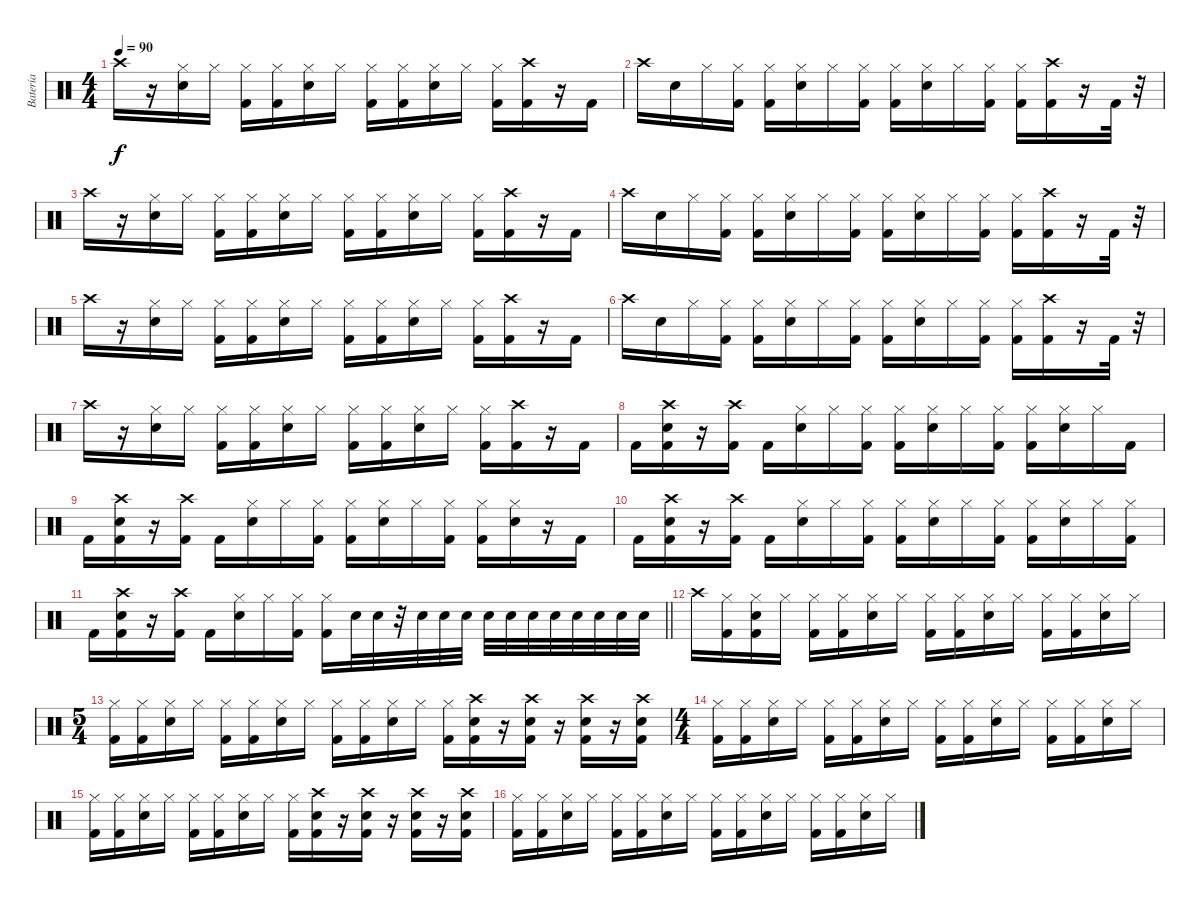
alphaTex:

\track ("Batería   (Jony)" "Batería   ") {instrument percussion}
\staff {score}
\articulation defaults
\ts (4 4)
\tempo 90
\clef neutral
\ks c "Crash high (hit)".16{dy f}
r.16 ("Hi-Hat (closed)" "Electric Snare (hit)").16 "Hi-Hat (closed)".16 ("Hi-Hat (closed)" "Kick (hit) 2").16 ("Hi-Hat (closed)" "Kick (hit) 2").16 ("Hi-Hat (closed)" "Electric Snare (hit)").16 "Hi-Hat (closed)".16 ("Hi-Hat (closed)" "Kick (hit) 2").16 ("Hi-Hat (closed)" "Kick (hit) 2").16 ("Hi-Hat (closed)" "Electric Snare (hit)").16 "Hi-Hat (closed)".16 ("Hi-Hat (closed)" "Kick (hit) 2").16 ("Crash high (hit)" "Kick (hit) 2").16 r.16 "Kick (hit) 2".16 |
"Crash high (hit)".16 "Electric Snare (hit)".16 "Hi-Hat (closed)".16 ("Hi-Hat (closed)" "Kick (hit) 2").16 ("Hi-Hat (closed)" "Kick (hit) 2").16 ("Hi-Hat (closed)" "Electric Snare (hit)").16 "Hi-Hat (closed)".16 ("Hi-Hat (closed)" "Kick (hit) 2").16 ("Hi-Hat (closed)" "Kick (hit) 2").16 ("Hi-Hat (closed)" "Electric Snare (hit)").16 "Hi-Hat (closed)".16 ("Hi-Hat (closed)" "Kick (hit) 2").16 ("Hi-Hat (closed)" "Kick (hit) 2").16 ("Crash high (hit)" "Kick (hit) 2").16 r.16 "Kick (hit) 2".32 r.32 |
"Crash high (hit)".16 r.16 ("Hi-Hat (closed)" "Electric Snare (hit)").16 "Hi-Hat (closed)".16 ("Hi-Hat (closed)" "Kick (hit) 2").16 ("Hi-Hat (closed)" "Kick (hit) 2").16 ("Hi-Hat (closed)" "Electric Snare (hit)").16 "Hi-Hat (closed)".16 ("Hi-Hat (closed)" "Kick (hit) 2").16 ("Hi-Hat (closed)" "Kick (hit) 2").16 ("Hi-Hat (closed)" "Electric Snare (hit)").16 "Hi-Hat (closed)".16 ("Hi-Hat (closed)" "Kick (hit) 2").16 ("Crash high (hit)" "Kick (hit) 2").16 r.16 "Kick (hit) 2".16 |
"Crash high (hit)".16 "Electric Snare (hit)".16 "Hi-Hat (closed)".16 ("Hi-Hat (closed)" "Kick (hit) 2").16 ("Hi-Hat (closed)" "Kick (hit) 2").16 ("Hi-Hat (closed)" "Electric Snare (hit)").16 "Hi-Hat (closed)".16 ("Hi-Hat (closed)" "Kick (hit) 2").16 ("Hi-Hat (closed)" "Kick (hit) 2").16 ("Hi-Hat (closed)" "Electric Snare (hit)").16 "Hi-Hat (closed)".16 ("Hi-Hat (closed)" "Kick (hit) 2").16 ("Hi-Hat (closed)" "Kick (hit) 2").16 ("Crash high (hit)" "Kick (hit) 2").16 r.16 "Kick (hit) 2".32 r.32 |
"Crash high (hit)".16 r.16 ("Hi-Hat (closed)" "Electric Snare (hit)").16 "Hi-Hat (closed)".16 ("Hi-Hat (closed)" "Kick (hit) 2").16 ("Hi-Hat (closed)" "Kick (hit) 2").16 ("Hi-Hat (closed)" "Electric Snare (hit)").16 "Hi-Hat (closed)".16 ("Hi-Hat (closed)" "Kick (hit) 2").16 ("Hi-Hat (closed)" "Kick (hit) 2").16 ("Hi-Hat (closed)" "Electric Snare (hit)").16 "Hi-Hat (closed)".16 ("Hi-Hat (closed)" "Kick (hit) 2").16 ("Crash high (hit)" "Kick (hit) 2").16 r.16 "Kick (hit) 2".16 |
"Crash high (hit)".16 "Electric Snare (hit)".16 "Hi-Hat (closed)".16 ("Hi-Hat (closed)" "Kick (hit) 2").16 ("Hi-Hat (closed)" "Kick (hit) 2").16 ("Hi-Hat (closed)" "Electric Snare (hit)").16 "Hi-Hat (closed)".16 ("Hi-Hat (closed)" "Kick (hit) 2").16 ("Hi-Hat (closed)" "Kick (hit) 2").16 ("Hi-Hat (closed)" "Electric Snare (hit)").16 "Hi-Hat (closed)".16 ("Hi-Hat (closed)" "Kick (hit) 2").16 ("Hi-Hat (closed)" "Kick (hit) 2").16 ("Crash high (hit)" "Kick (hit) 2").16 r.16 "Kick (hit) 2".32 r.32 |
"Crash high (hit)".16 r.16 ("Hi-Hat (closed)" "Electric Snare (hit)").16 "Hi-Hat (closed)".16 ("Hi-Hat (closed)" "Kick (hit) 2").16 ("Hi-Hat (closed)" "Kick (hit) 2").16 ("Hi-Hat (closed)" "Electric Snare (hit)").16 "Hi-Hat (closed)".16 ("Hi-Hat (closed)" "Kick (hit) 2").16 ("Hi-Hat (closed)" "Kick (hit) 2").16 ("Hi-Hat (closed)" "Electric Snare (hit)").16 "Hi-Hat (closed)".16 ("Hi-Hat (closed)" "Kick (hit) 2").16 ("Crash high (hit)" "Kick (hit) 2").16 r.16 "Kick (hit) 2".16 |
"Kick (hit) 2".16 ("Crash high (hit)" "Electric Snare (hit)" "Kick (hit) 2").16 r.16 ("Crash high (hit)" "Kick (hit) 2").16 "Kick (hit) 2".16 ("Hi-Hat (closed)" "Electric Snare (hit)").16 "Hi-Hat (closed)".16 ("Hi-Hat (closed)" "Kick (hit) 2").16 ("Hi-Hat (closed)" "Kick (hit) 2").16 ("Hi-Hat (closed)" "Electric Snare (hit)").16 "Hi-Hat (closed)".16 ("Hi-Hat (closed)" "Kick (hit) 2").16 ("Hi-Hat (closed)" "Kick (hit) 2").16 ("Hi-Hat (closed)" "Electric Snare (hit)").16 "Hi-Hat (closed)".16 "Kick (hit) 2".16 |
"Kick (hit) 2".16 ("Crash high (hit)" "Electric Snare (hit)" "Kick (hit) 2").16 r.16 ("Crash high (hit)" "Kick (hit) 2").16 "Kick (hit) 2".16 ("Hi-Hat (closed)" "Electric Snare (hit)").16 "Hi-Hat (closed)".16 ("Hi-Hat (closed)" "Kick (hit) 2").16 ("Hi-Hat (closed)" "Kick (hit) 2").16 ("Hi-Hat (closed)" "Electric Snare (hit)").16 "Hi-Hat (closed)".16 ("Hi-Hat (closed)" "Kick (hit) 2").16 ("Hi-Hat (closed)" "Kick (hit) 2").16 ("Hi-Hat (closed)" "Electric Snare (hit)").16 r.16 "Kick (hit) 2".16 |
"Kick (hit) 2".16 ("Crash high (hit)" "Electric Snare (hit)" "Kick (hit) 2").16 r.16 ("Crash high (hit)" "Kick (hit) 2").16 "Kick (hit) 2".16 ("Hi-Hat (closed)" "Electric Snare (hit)").16 "Hi-Hat (closed)".16 ("Hi-Hat (closed)" "Kick (hit) 2").16 ("Hi-Hat (closed)" "Kick (hit) 2").16 ("Hi-Hat (closed)" "Electric Snare (hit)").16 "Hi-Hat (closed)".16 ("Hi-Hat (closed)" "Kick (hit) 2").16 ("Hi-Hat (closed)" "Kick (hit) 2").16 ("Hi-Hat (closed)" "Electric Snare (hit)").16 "Hi-Hat (closed)".16 ("Hi-Hat (closed)" "Kick (hit) 2").16 |
\barLineRight lightlight "Kick (hit) 2".16
("Crash high (hit)" "Electric Snare (hit)" "Kick (hit) 2").16 r.16 ("Crash high (hit)" "Kick (hit) 2").16 "Kick (hit) 2".16 ("Hi-Hat (closed)" "Electric Snare (hit)").16 "Hi-Hat (closed)".16 ("Hi-Hat (closed)" "Kick (hit) 2").16 ("Hi-Hat (closed)" "Kick (hit) 2").16 "Electric Snare (hit)".32 "Electric Snare (hit)".32 r.32 "Electric Snare (hit)".32 "Electric Snare (hit)".32 "Electric Snare (hit)".32 "Electric Snare (hit)".32 "Electric Snare (hit)".32 "Electric Snare (hit)".32 "Electric Snare (hit)".32 "Electric Snare (hit)".32 "Electric Snare (hit)".32 "Electric Snare (hit)".32 "Electric Snare (hit)".32 |
"Crash high (hit)".16 ("Hi-Hat (closed)" "Kick (hit) 2").16 ("Hi-Hat (closed)" "Electric Snare (hit)" "Kick (hit) 2").16 "Hi-Hat (closed)".16 ("Hi-Hat (closed)" "Kick (hit) 2").16 ("Hi-Hat (closed)" "Kick (hit) 2").16 ("Hi-Hat (closed)" "Electric Snare (hit)").16 "Hi-Hat (closed)".16 ("Hi-Hat (closed)" "Kick (hit) 2").16 ("Hi-Hat (closed)" "Kick (hit) 2").16 ("Hi-Hat (closed)" "Electric Snare (hit)").16 "Hi-Hat (closed)".16 ("Hi-Hat (closed)" "Kick (hit) 2").16 ("Hi-Hat (closed)" "Kick (hit) 2").16 ("Hi-Hat (closed)" "Electric Snare (hit)").16 "Hi-Hat (closed)".16 |
\ts (5 4)
("Hi-Hat (closed)" "Kick (hit) 2").16 ("Hi-Hat (closed)" "Kick (hit) 2").16 ("Hi-Hat (closed)" "Electric Snare (hit)").16 "Hi-Hat (closed)".16 ("Hi-Hat (closed)" "Kick (hit) 2").16 ("Hi-Hat (closed)" "Kick (hit) 2").16 ("Hi-Hat (closed)" "Electric Snare (hit)").16 "Hi-Hat (closed)".16 ("Hi-Hat (closed)" "Kick (hit) 2").16 ("Hi-Hat (closed)" "Kick (hit) 2").16 ("Hi-Hat (closed)" "Electric Snare (hit)").16 "Hi-Hat (closed)".16 ("Hi-Hat (closed)" "Kick (hit) 2").16 ("Crash high (hit)" "Electric Snare (hit)" "Kick (hit) 2").16 r.16 ("Crash high (hit)" "Electric Snare (hit)" "Kick (hit) 2").16 r.16 ("Crash high (hit)" "Electric Snare (hit)" "Kick (hit) 2").16 r.16 ("Crash high (hit)" "Electric Snare (hit)" "Kick (hit) 2").16 |
\ts (4 4)
("Hi-Hat (closed)" "Kick (hit) 2").16 ("Hi-Hat (closed)" "Kick (hit) 2").16 ("Hi-Hat (closed)" "Electric Snare (hit)").16 "Hi-Hat (closed)".16 ("Hi-Hat (closed)" "Kick (hit) 2").16 ("Hi-Hat (closed)" "Kick (hit) 2").16 ("Hi-Hat (closed)" "Electric Snare (hit)").16 "Hi-Hat (closed)".16 ("Hi-Hat (closed)" "Kick (hit) 2").16 ("Hi-Hat (closed)" "Kick (hit) 2").16 ("Hi-Hat (closed)" "Electric Snare (hit)").16 "Hi-Hat (closed)".16 ("Hi-Hat (closed)" "Kick (hit) 2").16 ("Hi-Hat (closed)" "Kick (hit) 2").16 ("Hi-Hat (closed)" "Electric Snare (hit)").16 "Hi-Hat (closed)".16 |
("Hi-Hat (closed)" "Kick (hit) 2").16 ("Hi-Hat (closed)" "Kick (hit) 2").16 ("Hi-Hat (closed)" "Electric Snare (hit)").16 "Hi-Hat (closed)".16 ("Hi-Hat (closed)" "Kick (hit) 2").16 ("Hi-Hat (closed)" "Kick (hit) 2").16 ("Hi-Hat (closed)" "Electric Snare (hit)").16 "Hi-Hat (closed)".16 ("Hi-Hat (closed)" "Kick (hit) 2").16 ("Crash high (hit)" "Electric Snare (hit)" "Kick (hit) 2").16 r.16 ("Crash high (hit)" "Electric Snare (hit)" "Kick (hit) 2").16 r.16 ("Crash high (hit)" "Electric Snare (hit)" "Kick (hit) 2").16 r.16 ("Crash high (hit)" "Electric Snare (hit)" "Kick (hit) 2").16 |
("Hi-Hat (closed)" "Kick (hit) 2").16 ("Hi-Hat (closed)" "Kick (hit) 2").16 ("Hi-Hat (closed)" "Electric Snare (hit)").16 "Hi-Hat (closed)".16 ("Hi-Hat (closed)" "Kick (hit) 2").16 ("Hi-Hat (closed)" "Kick (hit) 2").16 ("Hi-Hat (closed)" "Electric Snare (hit)").16 "Hi-Hat (closed)".16 ("Hi-Hat (closed)" "Kick (hit) 2").16 ("Hi-Hat (closed)" "Kick (hit) 2").16 ("Hi-Hat (closed)" "Electric Snare (hit)").16 "Hi-Hat (closed)".16 ("Hi-Hat (closed)" "Kick (hit) 2").16 ("Hi-Hat (closed)" "Kick (hit) 2").16 ("Hi-Hat (closed)" "Electric Snare (hit)").16 "Hi-Hat (closed)".16
